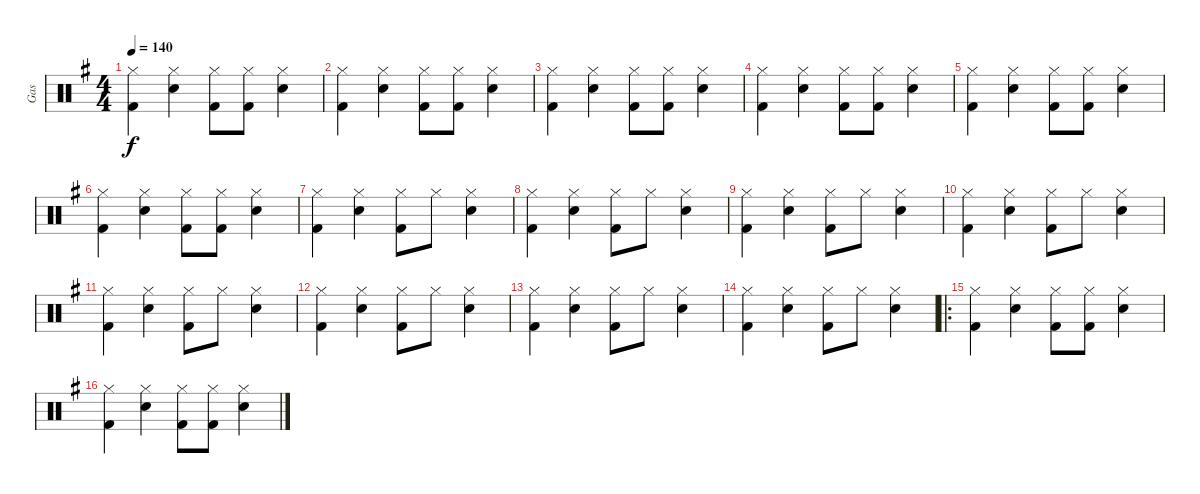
\track ("Gas" "Gas") {instrument percussion}
\staff {score}
\articulation defaults
\ts (4 4)
\tempo 140
\clef neutral
\ks eminor
("Hi-Hat (closed)" "Kick (hit) 2").4{dy f} ("Hi-Hat (closed)" "Electric Snare (hit)").4 ("Hi-Hat (closed)" "Kick (hit) 2").8 ("Hi-Hat (closed)" "Kick (hit) 2").8 ("Hi-Hat (closed)" "Electric Snare (hit)").4 |
("Hi-Hat (closed)" "Kick (hit) 2").4 ("Hi-Hat (closed)" "Electric Snare (hit)").4 ("Hi-Hat (closed)" "Kick (hit) 2").8 ("Hi-Hat (closed)" "Kick (hit) 2").8 ("Hi-Hat (closed)" "Electric Snare (hit)").4 |
("Hi-Hat (closed)" "Kick (hit) 2").4 ("Hi-Hat (closed)" "Electric Snare (hit)").4 ("Hi-Hat (closed)" "Kick (hit) 2").8 ("Hi-Hat (closed)" "Kick (hit) 2").8 ("Hi-Hat (closed)" "Electric Snare (hit)").4 |
("Hi-Hat (closed)" "Kick (hit) 2").4 ("Hi-Hat (closed)" "Electric Snare (hit)").4 ("Hi-Hat (closed)" "Kick (hit) 2").8 ("Hi-Hat (closed)" "Kick (hit) 2").8 ("Hi-Hat (closed)" "Electric Snare (hit)").4 |
("Hi-Hat (closed)" "Kick (hit) 2").4 ("Hi-Hat (closed)" "Electric Snare (hit)").4 ("Hi-Hat (closed)" "Kick (hit) 2").8 ("Hi-Hat (closed)" "Kick (hit) 2").8 ("Hi-Hat (closed)" "Electric Snare (hit)").4 |
("Hi-Hat (closed)" "Kick (hit) 2").4 ("Hi-Hat (closed)" "Electric Snare (hit)").4 ("Hi-Hat (closed)" "Kick (hit) 2").8 ("Hi-Hat (closed)" "Kick (hit) 2").8 ("Hi-Hat (closed)" "Electric Snare (hit)").4 |
("Hi-Hat (closed)" "Kick (hit) 2").4 ("Hi-Hat (closed)" "Electric Snare (hit)").4 ("Hi-Hat (closed)" "Kick (hit) 2").8 "Hi-Hat (closed)".8 ("Hi-Hat (closed)" "Electric Snare (hit)").4 |
("Hi-Hat (closed)" "Kick (hit) 2").4 ("Hi-Hat (closed)" "Electric Snare (hit)").4 ("Hi-Hat (closed)" "Kick (hit) 2").8 "Hi-Hat (closed)".8 ("Hi-Hat (closed)" "Electric Snare (hit)").4 |
("Hi-Hat (closed)" "Kick (hit) 2").4 ("Hi-Hat (closed)" "Electric Snare (hit)").4 ("Hi-Hat (closed)" "Kick (hit) 2").8 "Hi-Hat (closed)".8 ("Hi-Hat (closed)" "Electric Snare (hit)").4 |
("Hi-Hat (closed)" "Kick (hit) 2").4 ("Hi-Hat (closed)" "Electric Snare (hit)").4 ("Hi-Hat (closed)" "Kick (hit) 2").8 "Hi-Hat (closed)".8 ("Hi-Hat (closed)" "Electric Snare (hit)").4 |
("Hi-Hat (closed)" "Kick (hit) 2").4 ("Hi-Hat (closed)" "Electric Snare (hit)").4 ("Hi-Hat (closed)" "Kick (hit) 2").8 "Hi-Hat (closed)".8 ("Hi-Hat (closed)" "Electric Snare (hit)").4 |
("Hi-Hat (closed)" "Kick (hit) 2").4 ("Hi-Hat (closed)" "Electric Snare (hit)").4 ("Hi-Hat (closed)" "Kick (hit) 2").8 "Hi-Hat (closed)".8 ("Hi-Hat (closed)" "Electric Snare (hit)").4 |
("Hi-Hat (closed)" "Kick (hit) 2").4 ("Hi-Hat (closed)" "Electric Snare (hit)").4 ("Hi-Hat (closed)" "Kick (hit) 2").8 "Hi-Hat (closed)".8 ("Hi-Hat (closed)" "Electric Snare (hit)").4 |
("Hi-Hat (closed)" "Kick (hit) 2").4 ("Hi-Hat (closed)" "Electric Snare (hit)").4 ("Hi-Hat (closed)" "Kick (hit) 2").8 "Hi-Hat (closed)".8 ("Hi-Hat (closed)" "Electric Snare (hit)").4 |
\ro
("Hi-Hat (closed)" "Kick (hit) 2").4 ("Hi-Hat (closed)" "Electric Snare (hit)").4 ("Hi-Hat (closed)" "Kick (hit) 2").8 ("Hi-Hat (closed)" "Kick (hit) 2").8 ("Hi-Hat (closed)" "Electric Snare (hit)").4 |
("Hi-Hat (closed)" "Kick (hit) 2").4 ("Hi-Hat (closed)" "Electric Snare (hit)").4 ("Hi-Hat (closed)" "Kick (hit) 2").8 ("Hi-Hat (closed)" "Kick (hit) 2").8 ("Hi-Hat (closed)" "Electric Snare (hit)").4
